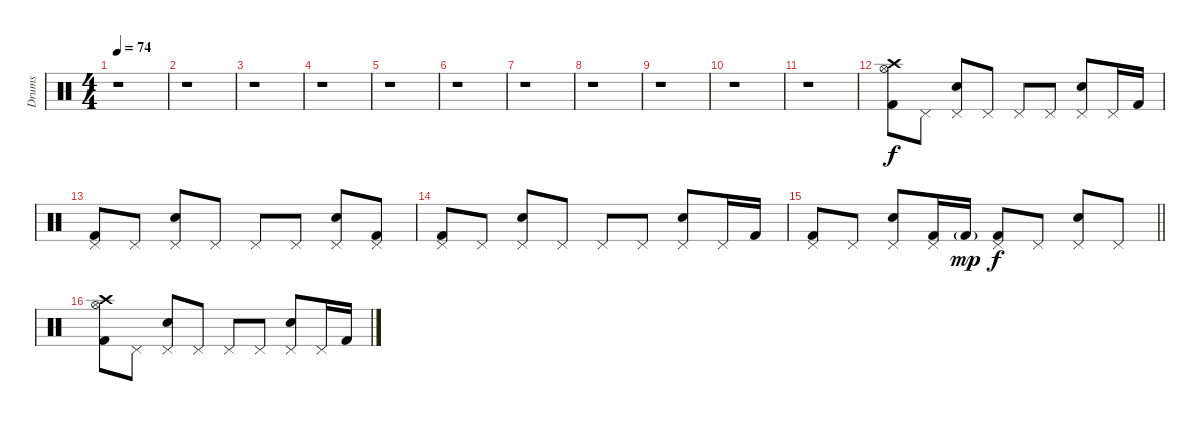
\track ("Drums" "Drums") {instrument percussion}
\staff {score}
\articulation defaults
\ts (4 4)
\tempo 74
\clef neutral
\ks c
r.1{dy f} |
r.1 |
r.1 |
r.1 |
r.1 |
r.1 |
r.1 |
r.1 |
r.1 |
r.1 |
r.1 |
("Crash high (hit)" "Hi-Hat (open)" "Kick (hit) 2").8 "Pedal Hi-Hat (hit)".8 ("Pedal Hi-Hat (hit)" "Electric Snare (hit)").8 "Pedal Hi-Hat (hit)".8 "Pedal Hi-Hat (hit)".8 "Pedal Hi-Hat (hit)".8 ("Pedal Hi-Hat (hit)" "Electric Snare (hit)").8 "Pedal Hi-Hat (hit)".16 "Kick (hit) 2".16 |
("Pedal Hi-Hat (hit)" "Kick (hit) 2").8 "Pedal Hi-Hat (hit)".8 ("Pedal Hi-Hat (hit)" "Electric Snare (hit)").8 "Pedal Hi-Hat (hit)".8 "Pedal Hi-Hat (hit)".8 "Pedal Hi-Hat (hit)".8 ("Pedal Hi-Hat (hit)" "Electric Snare (hit)").8 ("Pedal Hi-Hat (hit)" "Kick (hit) 2").8 |
("Pedal Hi-Hat (hit)" "Kick (hit) 2").8 "Pedal Hi-Hat (hit)".8 ("Pedal Hi-Hat (hit)" "Electric Snare (hit)").8 "Pedal Hi-Hat (hit)".8 "Pedal Hi-Hat (hit)".8 "Pedal Hi-Hat (hit)".8 ("Pedal Hi-Hat (hit)" "Electric Snare (hit)").8 "Pedal Hi-Hat (hit)".16 "Kick (hit) 2".16 |
\barLineRight lightlight
("Pedal Hi-Hat (hit)" "Kick (hit) 2").8 "Pedal Hi-Hat (hit)".8 ("Pedal Hi-Hat (hit)" "Electric Snare (hit)").8 ("Pedal Hi-Hat (hit)" "Kick (hit) 2").16 "Kick (hit) 2"{g}.16{dy mp} ("Pedal Hi-Hat (hit)" "Kick (hit) 2").8{dy f} "Pedal Hi-Hat (hit)".8 ("Pedal Hi-Hat (hit)" "Electric Snare (hit)").8 "Pedal Hi-Hat (hit)".8 |
("Crash high (hit)" "Hi-Hat (open)" "Kick (hit) 2").8 "Pedal Hi-Hat (hit)".8 ("Pedal Hi-Hat (hit)" "Electric Snare (hit)").8 "Pedal Hi-Hat (hit)".8 "Pedal Hi-Hat (hit)".8 "Pedal Hi-Hat (hit)".8 ("Pedal Hi-Hat (hit)" "Electric Snare (hit)").8 "Pedal Hi-Hat (hit)".16 "Kick (hit) 2".16
